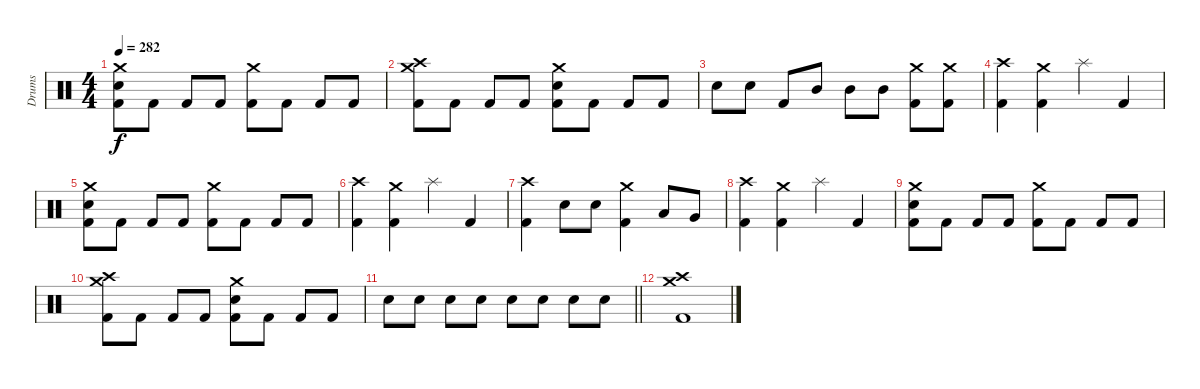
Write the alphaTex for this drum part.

\track ("Drums" "Drums") {instrument percussion}
\staff {score}
\articulation defaults
\ts (4 4)
\tempo 282
\clef neutral
\ks c
("Crash medium (hit)" "Snare (hit) 2" "Kick (hit) 2").8{dy f} "Kick (hit) 2".8 "Kick (hit) 2".8 "Kick (hit) 2".8 ("Crash medium (hit)" "Kick (hit) 2").8 "Kick (hit) 2".8 "Kick (hit) 2".8 "Kick (hit) 2".8 |
("Crash high (hit)" "Crash medium (hit)" "Kick (hit) 2").8 "Kick (hit) 2".8 "Kick (hit) 2".8 "Kick (hit) 2".8 ("Crash medium (hit)" "Snare (hit) 2" "Kick (hit) 2").8 "Kick (hit) 2".8 "Kick (hit) 2".8 "Kick (hit) 2".8 |
"Snare (hit) 2".8 "Snare (hit) 2".8 "Kick (hit) 2".8 "Mid Tom (hit)".8 "Mid Tom (hit)".8 "Mid Tom (hit)".8 ("Crash medium (hit)" "Kick (hit) 2").8 ("Crash medium (hit)" "Kick (hit) 2").8 |
("Crash high (hit)" "Kick (hit) 2").4 ("Crash medium (hit)" "Kick (hit) 2").4 "Splash (hit)".4 "Kick (hit) 2".4 |
("Crash medium (hit)" "Snare (hit) 2" "Kick (hit) 2").8 "Kick (hit) 2".8 "Kick (hit) 2".8 "Kick (hit) 2".8 ("Crash medium (hit)" "Kick (hit) 2").8 "Kick (hit) 2".8 "Kick (hit) 2".8 "Kick (hit) 2".8 |
("Crash high (hit)" "Kick (hit) 2").4 ("Crash medium (hit)" "Kick (hit) 2").4 "Splash (hit)".4 "Kick (hit) 2".4 |
("Crash high (hit)" "Kick (hit) 2").4 "Snare (hit) 2".8 "Snare (hit) 2".8 ("Crash medium (hit)" "Kick (hit) 2").4 "Low Tom (hit)".8 "Very Low Tom (hit)".8 |
("Crash high (hit)" "Kick (hit) 2").4 ("Crash medium (hit)" "Kick (hit) 2").4 "Splash (hit)".4 "Kick (hit) 2".4 |
("Crash medium (hit)" "Snare (hit) 2" "Kick (hit) 2").8 "Kick (hit) 2".8 "Kick (hit) 2".8 "Kick (hit) 2".8 ("Crash medium (hit)" "Kick (hit) 2").8 "Kick (hit) 2".8 "Kick (hit) 2".8 "Kick (hit) 2".8 |
("Crash high (hit)" "Crash medium (hit)" "Kick (hit) 2").8 "Kick (hit) 2".8 "Kick (hit) 2".8 "Kick (hit) 2".8 ("Crash medium (hit)" "Snare (hit) 2" "Kick (hit) 2").8 "Kick (hit) 2".8 "Kick (hit) 2".8 "Kick (hit) 2".8 |
\barLineRight lightlight "Snare (hit) 2".8 "Snare (hit) 2".8 "Snare (hit) 2".8 "Snare (hit) 2".8 "Snare (hit) 2".8 "Snare (hit) 2".8 "Snare (hit) 2".8 "Snare (hit) 2".8
|
("Crash high (hit)" "Crash medium (hit)" "Kick (hit) 2").1
